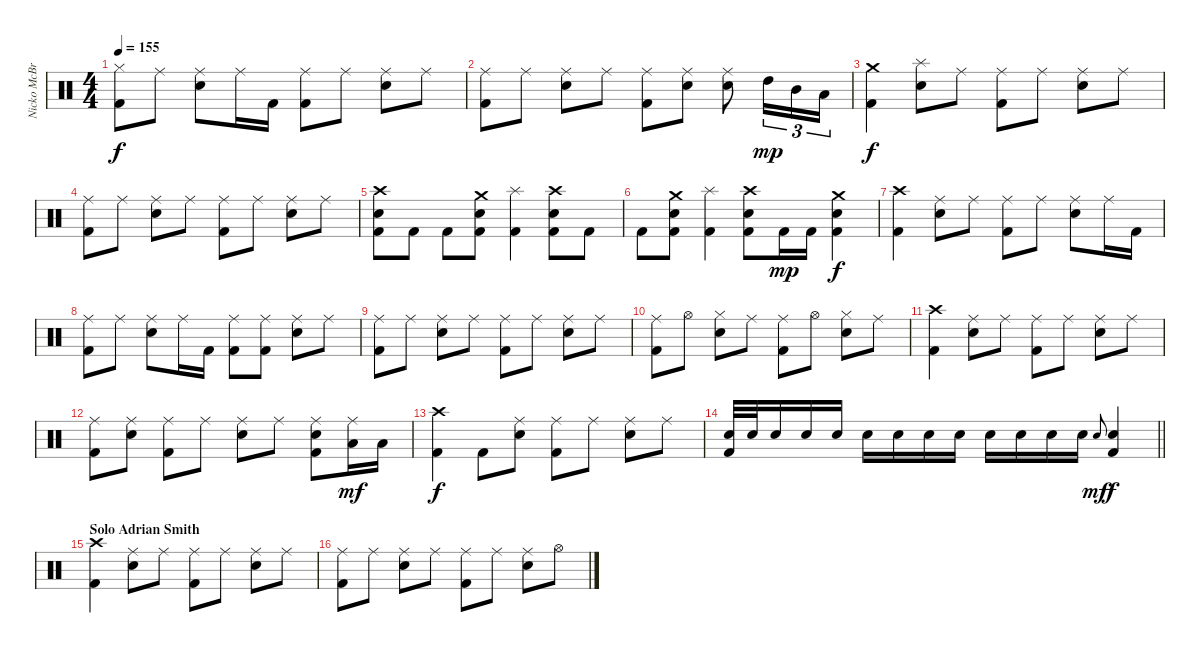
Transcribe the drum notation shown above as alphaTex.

\track ("Nicko McBrain" "Nicko McBr") {instrument percussion}
\staff {score}
\articulation defaults
\ts (4 4)
\tempo 155
\clef neutral
\ks c
("Hi-Hat (closed)" "Kick (hit) 2").8{dy f} "Ride (middle)".8 ("Ride (middle)" "Snare (hit) 2").8 "Ride (middle)".16 "Kick (hit) 2".16 ("Ride (middle)" "Kick (hit) 2").8 "Ride (middle)".8 ("Ride (middle)" "Snare (hit) 2").8 "Ride (middle)".8 |
("Ride (middle)" "Kick (hit) 2").8 "Ride (middle)".8 ("Ride (middle)" "Snare (hit) 2").8 "Ride (middle)".8 ("Ride (middle)" "Kick (hit) 2").8 ("Ride (middle)" "Snare (hit) 2").8 ("Ride (middle)" "Snare (hit) 2").8 "High Tom (hit)".16{tu (3 2) dy mp} "Mid Tom (hit)".16{tu (3 2)} "Low Tom (hit)".16{tu (3 2)} |
("Crash medium (hit)" "Kick (hit) 2").4{dy f} ("Snare (hit) 2" "Splash (hit)").8 "Ride (middle)".8 ("Ride (middle)" "Kick (hit) 2").8 "Ride (middle)".8 ("Ride (middle)" "Snare (hit) 2").8 "Ride (middle)".8 |
("Ride (middle)" "Kick (hit) 2").8 "Ride (middle)".8 ("Ride (middle)" "Snare (hit) 2").8 "Ride (middle)".8 ("Ride (middle)" "Kick (hit) 2").8 "Ride (middle)".8 ("Ride (middle)" "Snare (hit) 2").8 "Ride (middle)".8 |
("Snare (hit) 2" "Crash high (hit)" "Kick (hit) 2").8 "Kick (hit) 2".8 "Kick (hit) 2".8 ("Snare (hit) 2" "Crash medium (hit)" "Kick (hit) 2").8 ("Splash (hit)" "Kick (hit) 2").4 ("Snare (hit) 2" "Crash high (hit)" "Kick (hit) 2").8 "Kick (hit) 2".8 |
"Kick (hit) 2".8 ("Snare (hit) 2" "Crash medium (hit)" "Kick (hit) 2").8 ("Splash (hit)" "Kick (hit) 2").4 ("Snare (hit) 2" "Crash high (hit)" "Kick (hit) 2").8 "Kick (hit) 2".16{dy mp} "Kick (hit) 2".16 ("Snare (hit) 2" "Crash medium (hit)" "Kick (hit) 2").4{dy f} |
("Crash high (hit)" "Kick (hit) 2").4 ("Ride (middle)" "Snare (hit) 2").8 "Ride (middle)".8 ("Ride (middle)" "Kick (hit) 2").8 "Ride (middle)".8 ("Ride (middle)" "Snare (hit) 2").8 "Ride (middle)".16 "Kick (hit) 2".16 |
("Ride (middle)" "Kick (hit) 2").8 "Ride (middle)".8 ("Ride (middle)" "Snare (hit) 2").8 "Ride (middle)".16 "Kick (hit) 2".16 ("Ride (middle)" "Kick (hit) 2").8 ("Ride (middle)" "Kick (hit) 2").8 ("Ride (middle)" "Snare (hit) 2").8 "Ride (middle)".8 |
("Ride (middle)" "Kick (hit) 2").8 "Ride (middle)".8 ("Ride (middle)" "Snare (hit) 2").8 "Ride (middle)".8 ("Ride (middle)" "Kick (hit) 2").8 "Ride (middle)".8 ("Ride (middle)" "Snare (hit) 2").8 "Ride (middle)".8 |
("Ride (middle)" "Kick (hit) 2").8 "Hi-Hat (open)".8 ("Hi-Hat (closed)" "Snare (hit) 2").8 "Ride (middle)".8 ("Ride (middle)" "Kick (hit) 2").8 "Hi-Hat (open)".8 ("Hi-Hat (closed)" "Snare (hit) 2").8 "Ride (middle)".8 |
("Crash high (hit)" "Kick (hit) 2").4 ("Ride (middle)" "Snare (hit) 2").8 "Ride (middle)".8 ("Ride (middle)" "Kick (hit) 2").8 "Ride (middle)".8 ("Ride (middle)" "Snare (hit) 2").8 "Ride (middle)".8 |
("Ride (middle)" "Kick (hit) 2").8 ("Ride (middle)" "Snare (hit) 2").8 ("Ride (middle)" "Kick (hit) 2").8 "Ride (middle)".8 ("Ride (middle)" "Snare (hit) 2").8 "Ride (middle)".8 ("Ride (middle)" "Snare (hit) 2" "Kick (hit) 2").8 ("Ride (middle)" "Low Floor Tom (hit)").16{dy mf} "Low Floor Tom (hit)".16 |
("Crash high (hit)" "Kick (hit) 2").4{dy f} "Kick (hit) 2".8 ("Ride (middle)" "Snare (hit) 2").8 ("Ride (middle)" "Kick (hit) 2").8 "Ride (middle)".8 ("Ride (middle)" "Snare (hit) 2").8 "Ride (middle)".8 |
\barLineRight lightlight
("Snare (hit) 2" "Kick (hit) 2").32 "Snare (hit) 2".32 "Snare (hit) 2".16 "Snare (hit) 2".16 "Snare (hit) 2".16 "Snare (hit) 2".16 "Snare (hit) 2".16 "Snare (hit) 2".16 "Snare (hit) 2".16 "Snare (hit) 2".16 "Snare (hit) 2".16 "Snare (hit) 2".16 "Snare (hit) 2".16 "Snare (hit) 2".8{gr onbeat dy mf} ("Snare (hit) 2" "Kick (hit) 2").4{dy f} |
\section ("" "Solo Adrian Smith")
("Crash high (hit)" "Kick (hit) 2").4 ("Ride (middle)" "Snare (hit) 2").8 "Ride (middle)".8 ("Ride (middle)" "Kick (hit) 2").8 "Ride (middle)".8 ("Ride (middle)" "Snare (hit) 2").8 "Ride (middle)".8 |
("Ride (middle)" "Kick (hit) 2").8 "Ride (middle)".8 ("Ride (middle)" "Snare (hit) 2").8 "Ride (middle)".8 ("Ride (middle)" "Kick (hit) 2").8 "Ride (middle)".8 ("Ride (middle)" "Snare (hit) 2").8 "Hi-Hat (open)".8
